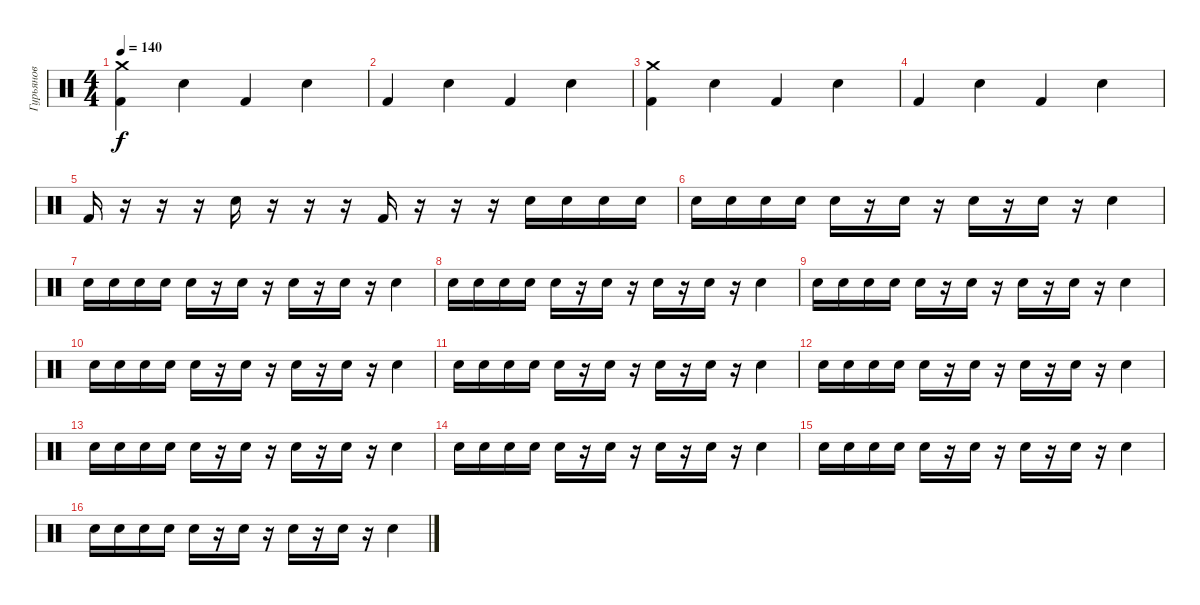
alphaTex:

\track ("Гурьянов" "Гурьянов") {instrument percussion}
\staff {score}
\articulation defaults
\ts (4 4)
\tempo 140
\clef neutral
\ks c
("Kick (hit) 2" "Crash medium (hit)").4{dy f} "Electric Snare (hit)".4 "Kick (hit) 2".4 "Electric Snare (hit)".4 |
"Kick (hit) 2".4 "Electric Snare (hit)".4 "Kick (hit) 2".4 "Electric Snare (hit)".4 |
("Kick (hit) 2" "Crash medium (hit)").4 "Electric Snare (hit)".4 "Kick (hit) 2".4 "Electric Snare (hit)".4 |
"Kick (hit) 2".4 "Electric Snare (hit)".4 "Kick (hit) 2".4 "Electric Snare (hit)".4 |
"Kick (hit) 2".16 r.16 r.16 r.16 "Electric Snare (hit)".16 r.16 r.16 r.16 "Kick (hit) 2".16 r.16 r.16 r.16 "Snare (hit) 2".16 "Snare (hit) 2".16 "Snare (hit) 2".16 "Snare (hit) 2".16 |
"Snare (hit) 2".16 "Snare (hit) 2".16 "Snare (hit) 2".16 "Snare (hit) 2".16 "Snare (hit) 2".16 r.16 "Snare (hit) 2".16 r.16 "Snare (hit) 2".16 r.16 "Snare (hit) 2".16 r.16 "Snare (hit) 2".4 |
"Snare (hit) 2".16 "Snare (hit) 2".16 "Snare (hit) 2".16 "Snare (hit) 2".16 "Snare (hit) 2".16 r.16 "Snare (hit) 2".16 r.16 "Snare (hit) 2".16 r.16 "Snare (hit) 2".16 r.16 "Snare (hit) 2".4 |
"Snare (hit) 2".16 "Snare (hit) 2".16 "Snare (hit) 2".16 "Snare (hit) 2".16 "Snare (hit) 2".16 r.16 "Snare (hit) 2".16 r.16 "Snare (hit) 2".16 r.16 "Snare (hit) 2".16 r.16 "Snare (hit) 2".4 |
"Snare (hit) 2".16 "Snare (hit) 2".16 "Snare (hit) 2".16 "Snare (hit) 2".16 "Snare (hit) 2".16 r.16 "Snare (hit) 2".16 r.16 "Snare (hit) 2".16 r.16 "Snare (hit) 2".16 r.16 "Snare (hit) 2".4 |
"Snare (hit) 2".16 "Snare (hit) 2".16 "Snare (hit) 2".16 "Snare (hit) 2".16 "Snare (hit) 2".16 r.16 "Snare (hit) 2".16 r.16 "Snare (hit) 2".16 r.16 "Snare (hit) 2".16 r.16 "Snare (hit) 2".4 |
"Snare (hit) 2".16 "Snare (hit) 2".16 "Snare (hit) 2".16 "Snare (hit) 2".16 "Snare (hit) 2".16 r.16 "Snare (hit) 2".16 r.16 "Snare (hit) 2".16 r.16 "Snare (hit) 2".16 r.16 "Snare (hit) 2".4 |
"Snare (hit) 2".16 "Snare (hit) 2".16 "Snare (hit) 2".16 "Snare (hit) 2".16 "Snare (hit) 2".16 r.16 "Snare (hit) 2".16 r.16 "Snare (hit) 2".16 r.16 "Snare (hit) 2".16 r.16 "Snare (hit) 2".4 |
"Snare (hit) 2".16 "Snare (hit) 2".16 "Snare (hit) 2".16 "Snare (hit) 2".16 "Snare (hit) 2".16 r.16 "Snare (hit) 2".16 r.16 "Snare (hit) 2".16 r.16 "Snare (hit) 2".16 r.16 "Snare (hit) 2".4 |
"Snare (hit) 2".16 "Snare (hit) 2".16 "Snare (hit) 2".16 "Snare (hit) 2".16 "Snare (hit) 2".16 r.16 "Snare (hit) 2".16 r.16 "Snare (hit) 2".16 r.16 "Snare (hit) 2".16 r.16 "Snare (hit) 2".4 |
"Snare (hit) 2".16 "Snare (hit) 2".16 "Snare (hit) 2".16 "Snare (hit) 2".16 "Snare (hit) 2".16 r.16 "Snare (hit) 2".16 r.16 "Snare (hit) 2".16 r.16 "Snare (hit) 2".16 r.16 "Snare (hit) 2".4 |
"Snare (hit) 2".16 "Snare (hit) 2".16 "Snare (hit) 2".16 "Snare (hit) 2".16 "Snare (hit) 2".16 r.16 "Snare (hit) 2".16 r.16 "Snare (hit) 2".16 r.16 "Snare (hit) 2".16 r.16 "Snare (hit) 2".4
